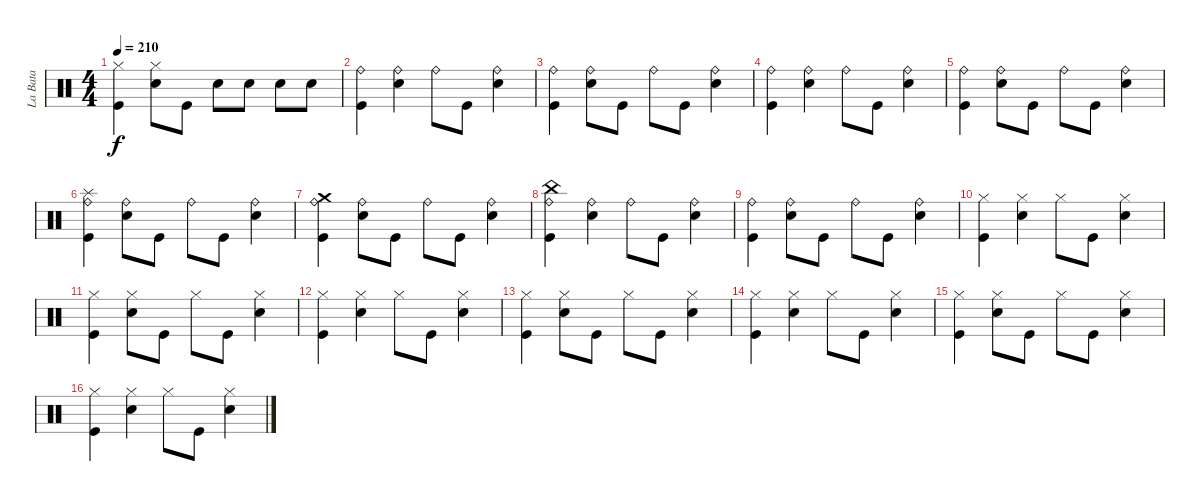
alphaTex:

\track ("La Bata" "La Bata") {instrument percussion}
\staff {score}
\articulation defaults
\ts (4 4)
\tempo 210
\clef neutral
\ks c
("Hi-Hat (closed)" "Kick (hit)").4{dy f} ("Snare (hit) 2" "Hi-Hat (closed)").8 "Kick (hit)".8 "Snare (hit) 2".8 "Snare (hit) 2".8 "Snare (hit) 2".8 "Snare (hit) 2".8 |
("Kick (hit)" "Ride (bell)").4 ("Snare (hit) 2" "Ride (bell)").4 "Ride (bell)".8 "Kick (hit)".8 ("Snare (hit) 2" "Ride (bell)").4 |
("Ride (bell)" "Kick (hit)").4 ("Snare (hit) 2" "Ride (bell)").8 "Kick (hit)".8 "Ride (bell)".8 "Kick (hit)".8 ("Ride (bell)" "Snare (hit) 2").4 |
("Kick (hit)" "Ride (bell)").4 ("Snare (hit) 2" "Ride (bell)").4 "Ride (bell)".8 "Kick (hit)".8 ("Snare (hit) 2" "Ride (bell)").4 |
("Ride (bell)" "Kick (hit)").4 ("Snare (hit) 2" "Ride (bell)").8 "Kick (hit)".8 "Ride (bell)".8 "Kick (hit)".8 ("Ride (bell)" "Snare (hit) 2").4 |
("Kick (hit)" "Ride (bell)" "Splash (hit)").4 ("Snare (hit) 2" "Ride (bell)").8 "Kick (hit)".8 "Ride (bell)".8 "Kick (hit)".8 ("Snare (hit) 2" "Ride (bell)").4 |
("Ride (bell)" "Kick (hit)" "Crash medium (hit)").4 ("Snare (hit) 2" "Ride (bell)").8 "Kick (hit)".8 "Ride (bell)".8 "Kick (hit)".8 ("Ride (bell)" "Snare (hit) 2").4 |
("Kick (hit)" "Ride (bell)" "China (hit)").4 ("Snare (hit) 2" "Ride (bell)").4 "Ride (bell)".8 "Kick (hit)".8 ("Snare (hit) 2" "Ride (bell)").4 |
("Ride (bell)" "Kick (hit)").4 ("Snare (hit) 2" "Ride (bell)").8 "Kick (hit)".8 "Ride (bell)".8 "Kick (hit)".8 ("Ride (bell)" "Snare (hit) 2").4 |
("Kick (hit)" "Hi-Hat (closed)").4 ("Snare (hit) 2" "Hi-Hat (closed)").4 "Hi-Hat (closed)".8 "Kick (hit)".8 ("Snare (hit) 2" "Hi-Hat (closed)").4 |
("Hi-Hat (closed)" "Kick (hit)").4 ("Snare (hit) 2" "Hi-Hat (closed)").8 "Kick (hit)".8 "Hi-Hat (closed)".8 "Kick (hit)".8 ("Hi-Hat (closed)" "Snare (hit) 2").4 |
("Kick (hit)" "Hi-Hat (closed)").4 ("Snare (hit) 2" "Hi-Hat (closed)").4 "Hi-Hat (closed)".8 "Kick (hit)".8 ("Snare (hit) 2" "Hi-Hat (closed)").4 |
("Hi-Hat (closed)" "Kick (hit)").4 ("Snare (hit) 2" "Hi-Hat (closed)").8 "Kick (hit)".8 "Hi-Hat (closed)".8 "Kick (hit)".8 ("Hi-Hat (closed)" "Snare (hit) 2").4 |
("Kick (hit)" "Hi-Hat (closed)").4 ("Snare (hit) 2" "Hi-Hat (closed)").4 "Hi-Hat (closed)".8 "Kick (hit)".8 ("Snare (hit) 2" "Hi-Hat (closed)").4 |
("Hi-Hat (closed)" "Kick (hit)").4 ("Snare (hit) 2" "Hi-Hat (closed)").8 "Kick (hit)".8 "Hi-Hat (closed)".8 "Kick (hit)".8 ("Hi-Hat (closed)" "Snare (hit) 2").4 |
("Kick (hit)" "Hi-Hat (closed)").4 ("Snare (hit) 2" "Hi-Hat (closed)").4 "Hi-Hat (closed)".8 "Kick (hit)".8 ("Snare (hit) 2" "Hi-Hat (closed)").4
